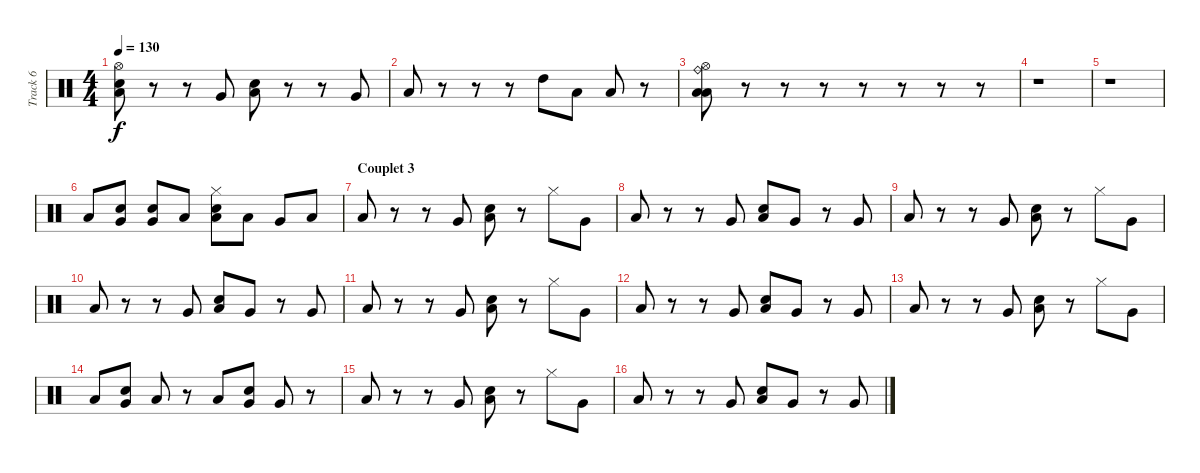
\track ("Track 6" "Track 6") {instrument percussion}
\staff {score}
\articulation defaults
\ts (4 4)
\tempo 130
\clef neutral
\ks c
("Low Floor Tom (hit)" "Snare (hit) 2" "Hi-Hat (open)").8{dy f} r.8 r.8 "Very Low Tom (hit)".8 ("Low Tom (hit)" "Snare (hit) 2").8 r.8 r.8 "Very Low Tom (hit)".8 |
"Low Floor Tom (hit)".8 r.8 r.8 r.8 "High Tom (hit)".8 "Low Tom (hit)".8 "Low Floor Tom (hit)".8 r.8 |
("Low Floor Tom (hit)" "Low Tom (hit)" "Ride (bell)" "Hi-Hat (open)").8 r.8 r.8 r.8 r.8 r.8 r.8 r.8 |
r.1 |
r.1 |
"Low Tom (hit)".8 ("Very Low Tom (hit)" "Snare (hit) 2").8 ("Very Low Tom (hit)" "Snare (hit) 2").8 "Low Floor Tom (hit)".8 ("Low Tom (hit)" "Snare (hit) 2" "Hi-Hat (closed)").8 "Low Tom (hit)".8 "Very Low Tom (hit)".8 "Low Floor Tom (hit)".8 |
\section ("" "Couplet 3")
"Low Floor Tom (hit)".8 r.8 r.8 "Very Low Tom (hit)".8 ("Low Tom (hit)" "Snare (hit) 2").8 r.8 "Hi-Hat (closed)".8 "Very Low Tom (hit)".8 |
"Low Floor Tom (hit)".8 r.8 r.8 "Very Low Tom (hit)".8 ("Low Tom (hit)" "Snare (hit) 2").8 "Very Low Tom (hit)".8 r.8 "Very Low Tom (hit)".8 |
"Low Floor Tom (hit)".8 r.8 r.8 "Very Low Tom (hit)".8 ("Low Tom (hit)" "Snare (hit) 2").8 r.8 "Hi-Hat (closed)".8 "Very Low Tom (hit)".8 |
"Low Floor Tom (hit)".8 r.8 r.8 "Very Low Tom (hit)".8 ("Low Tom (hit)" "Snare (hit) 2").8 "Very Low Tom (hit)".8 r.8 "Very Low Tom (hit)".8 |
"Low Floor Tom (hit)".8 r.8 r.8 "Very Low Tom (hit)".8 ("Low Tom (hit)" "Snare (hit) 2").8 r.8 "Hi-Hat (closed)".8 "Very Low Tom (hit)".8 |
"Low Floor Tom (hit)".8 r.8 r.8 "Very Low Tom (hit)".8 ("Low Tom (hit)" "Snare (hit) 2").8 "Very Low Tom (hit)".8 r.8 "Very Low Tom (hit)".8 |
"Low Floor Tom (hit)".8 r.8 r.8 "Very Low Tom (hit)".8 ("Low Tom (hit)" "Snare (hit) 2").8 r.8 "Hi-Hat (closed)".8 "Very Low Tom (hit)".8 |
"Low Floor Tom (hit)".8 ("Very Low Tom (hit)" "Snare (hit) 2").8 "Low Floor Tom (hit)".8 r.8 "Low Tom (hit)".8 ("Very Low Tom (hit)" "Snare (hit) 2").8 "Very Low Tom (hit)".8 r.8 |
"Low Floor Tom (hit)".8 r.8 r.8 "Very Low Tom (hit)".8 ("Low Tom (hit)" "Snare (hit) 2").8 r.8 "Hi-Hat (closed)".8 "Very Low Tom (hit)".8 |
"Low Floor Tom (hit)".8 r.8 r.8 "Very Low Tom (hit)".8 ("Low Tom (hit)" "Snare (hit) 2").8 "Very Low Tom (hit)".8 r.8 "Very Low Tom (hit)".8
